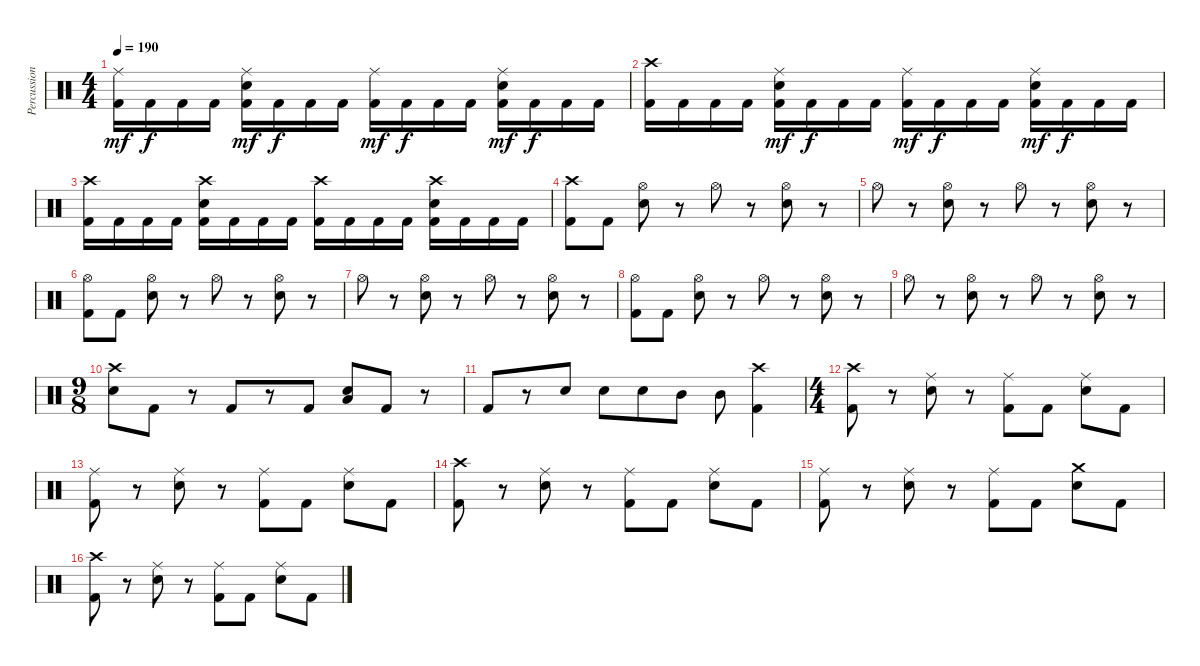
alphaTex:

\track ("Percussion" "Percussion") {instrument percussion}
\staff {score}
\articulation defaults
\ts (4 4)
\tempo 190
\clef neutral
\ks c
("Ride (middle)" "Kick (hit) 2").16{dy mf} "Kick (hit) 2".16{dy f} "Kick (hit) 2".16 "Kick (hit) 2".16 ("Ride (middle)" "Snare (hit) 2" "Kick (hit) 2").16{dy mf} "Kick (hit) 2".16{dy f} "Kick (hit) 2".16 "Kick (hit) 2".16 ("Ride (middle)" "Kick (hit) 2").16{dy mf} "Kick (hit) 2".16{dy f} "Kick (hit) 2".16 "Kick (hit) 2".16 ("Ride (middle)" "Snare (hit) 2" "Kick (hit) 2").16{dy mf} "Kick (hit) 2".16{dy f} "Kick (hit) 2".16 "Kick (hit) 2".16 |
("Crash high (hit)" "Kick (hit) 2").16 "Kick (hit) 2".16 "Kick (hit) 2".16 "Kick (hit) 2".16 ("Ride (middle)" "Snare (hit) 2" "Kick (hit) 2").16{dy mf} "Kick (hit) 2".16{dy f} "Kick (hit) 2".16 "Kick (hit) 2".16 ("Ride (middle)" "Kick (hit) 2").16{dy mf} "Kick (hit) 2".16{dy f} "Kick (hit) 2".16 "Kick (hit) 2".16 ("Ride (middle)" "Snare (hit) 2" "Kick (hit) 2").16{dy mf} "Kick (hit) 2".16{dy f} "Kick (hit) 2".16 "Kick (hit) 2".16 |
("Crash high (hit)" "Kick (hit) 2").16 "Kick (hit) 2".16 "Kick (hit) 2".16 "Kick (hit) 2".16 ("Crash high (hit)" "Snare (hit) 2" "Kick (hit) 2").16 "Kick (hit) 2".16 "Kick (hit) 2".16 "Kick (hit) 2".16 ("Crash high (hit)" "Kick (hit) 2").16 "Kick (hit) 2".16 "Kick (hit) 2".16 "Kick (hit) 2".16 ("Crash high (hit)" "Snare (hit) 2" "Kick (hit) 2").16 "Kick (hit) 2".16 "Kick (hit) 2".16 "Kick (hit) 2".16 |
("Crash high (hit)" "Kick (hit) 2").8 "Kick (hit) 2".8 ("Hi-Hat (open)" "Snare (hit) 2").8 r.8 "Hi-Hat (open)".8 r.8 ("Hi-Hat (open)" "Snare (hit) 2").8 r.8 |
"Hi-Hat (open)".8 r.8 ("Hi-Hat (open)" "Snare (hit) 2").8 r.8 "Hi-Hat (open)".8 r.8 ("Hi-Hat (open)" "Snare (hit) 2").8 r.8 |
("Hi-Hat (open)" "Kick (hit) 2").8 "Kick (hit) 2".8 ("Hi-Hat (open)" "Snare (hit) 2").8 r.8 "Hi-Hat (open)".8 r.8 ("Hi-Hat (open)" "Snare (hit) 2").8 r.8 |
"Hi-Hat (open)".8 r.8 ("Hi-Hat (open)" "Snare (hit) 2").8 r.8 "Hi-Hat (open)".8 r.8 ("Hi-Hat (open)" "Snare (hit) 2").8 r.8 |
("Hi-Hat (open)" "Kick (hit) 2").8 "Kick (hit) 2".8 ("Hi-Hat (open)" "Snare (hit) 2").8 r.8 "Hi-Hat (open)".8 r.8 ("Hi-Hat (open)" "Snare (hit) 2").8 r.8 |
"Hi-Hat (open)".8 r.8 ("Hi-Hat (open)" "Snare (hit) 2").8 r.8 "Hi-Hat (open)".8 r.8 ("Hi-Hat (open)" "Snare (hit) 2").8 r.8 |
\ts (9 8)
("Crash high (hit)" "Snare (hit) 2").8 "Kick (hit) 2".8 r.8 "Kick (hit) 2".8 r.8 "Kick (hit) 2".8 ("Low Tom (hit)" "Snare (hit) 2").8 "Kick (hit) 2".8 r.8 |
"Kick (hit) 2".8 r.8 "Snare (hit) 2".8 "Snare (hit) 2".8 "Snare (hit) 2".8 "Mid Tom (hit)".8 "Mid Tom (hit)".8 ("Crash high (hit)" "Kick (hit) 2").4 |
\ts (4 4)
("Crash high (hit)" "Kick (hit) 2").8 r.8 ("Ride (middle)" "Snare (hit) 2").8 r.8 ("Ride (middle)" "Kick (hit) 2").8 "Kick (hit) 2".8 ("Ride (middle)" "Snare (hit) 2").8 "Kick (hit) 2".8 |
("Ride (middle)" "Kick (hit) 2").8 r.8 ("Ride (middle)" "Snare (hit) 2").8 r.8 ("Ride (middle)" "Kick (hit) 2").8 "Kick (hit) 2".8 ("Ride (middle)" "Snare (hit) 2").8 "Kick (hit) 2".8 |
("Crash high (hit)" "Kick (hit) 2").8 r.8 ("Ride (middle)" "Snare (hit) 2").8 r.8 ("Ride (middle)" "Kick (hit) 2").8 "Kick (hit) 2".8 ("Ride (middle)" "Snare (hit) 2").8 "Kick (hit) 2".8 |
("Ride (middle)" "Kick (hit) 2").8 r.8 ("Ride (middle)" "Snare (hit) 2").8 r.8 ("Ride (middle)" "Kick (hit) 2").8 "Kick (hit) 2".8 ("Crash medium (hit)" "Snare (hit) 2").8 "Kick (hit) 2".8 |
("Crash high (hit)" "Kick (hit) 2").8 r.8 ("Ride (middle)" "Snare (hit) 2").8 r.8 ("Ride (middle)" "Kick (hit) 2").8 "Kick (hit) 2".8 ("Ride (middle)" "Snare (hit) 2").8 "Kick (hit) 2".8
